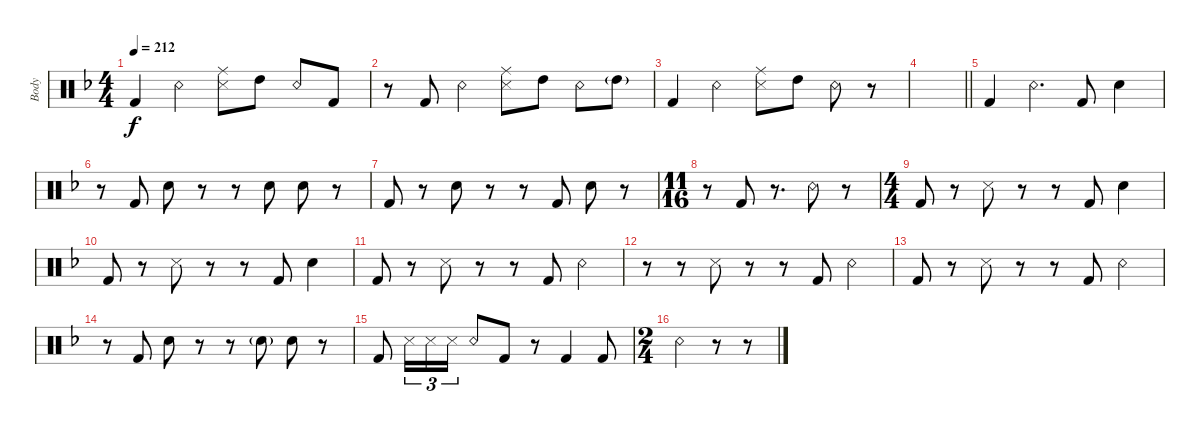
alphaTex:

\track ("Body" "Body") {instrument percussion}
\staff {score}
\articulation defaults
\ts (4 4)
\tempo 212
\clef neutral
\ks dminor "Kick (hit) 2".4{dy f} "Snare (rim shot)".4
("Snare (side stick) 3" "Ride (middle)").8 "High Tom (hit)".8 "Snare (rim shot)".8 "Kick (hit) 2".8 |
r.8 "Kick (hit) 2".8 "Snare (rim shot)".4 ("Snare (side stick) 3" "Ride (middle)").8 "High Tom (hit)".8 "Snare (rim shot)".8 "High Tom (hit)"{g}.8 |
"Kick (hit) 2".4 "Snare (rim shot)".4 ("Snare (side stick) 3" "Ride (middle)").8 "High Tom (hit)".8 "Snare (rim shot)".8 r.8 |
\barLineRight lightlight
|
"Kick (hit) 2".4 "Snare (rim shot)".4{d} "Kick (hit) 2".8 "Snare (hit) 2".4 |
r.8 "Kick (hit) 2".8 "Snare (hit) 2".8 r.8 r.8 "Snare (hit) 2".8 "Snare (hit) 2".8 r.8 |
"Kick (hit) 2".8 r.8 "Snare (hit) 2".8 r.8 r.8 "Kick (hit) 2".8 "Snare (hit) 2".8 r.8 |
\ts (11 16)
r.8 "Kick (hit) 2".8 r.8{d} "Snare (rim shot)".8 r.8 |
\ts (4 4)
"Kick (hit) 2".8 r.8 "Snare (side stick) 3".8 r.8 r.8 "Kick (hit) 2".8 "Snare (hit) 2".4 |
"Kick (hit) 2".8 r.8 "Snare (side stick) 3".8 r.8 r.8 "Kick (hit) 2".8 "Snare (hit) 2".4 |
"Kick (hit) 2".8 r.8 "Snare (side stick) 3".8 r.8 r.8 "Kick (hit) 2".8 "Snare (rim shot)".4 |
r.8 r.8 "Snare (side stick) 3".8 r.8 r.8 "Kick (hit) 2".8 "Snare (rim shot)".4 |
"Kick (hit) 2".8 r.8 "Snare (side stick) 3".8 r.8 r.8 "Kick (hit) 2".8 "Snare (rim shot)".4 |
r.8 "Kick (hit) 2".8 "Snare (hit) 2".8 r.8 r.8 "Snare (hit) 2"{g}.8 "Snare (hit) 2".8 r.8 |
"Kick (hit) 2".8 "Snare (side stick) 3".16{tu (3 2)} "Snare (side stick) 3".16{tu (3 2)} "Snare (side stick) 3".16{tu (3 2)} "Snare (rim shot)".8 "Kick (hit) 2".8 r.8 "Kick (hit) 2".4 "Kick (hit) 2".8 |
\ts (2 4)
"Snare (rim shot)".4 r.8 r.8
